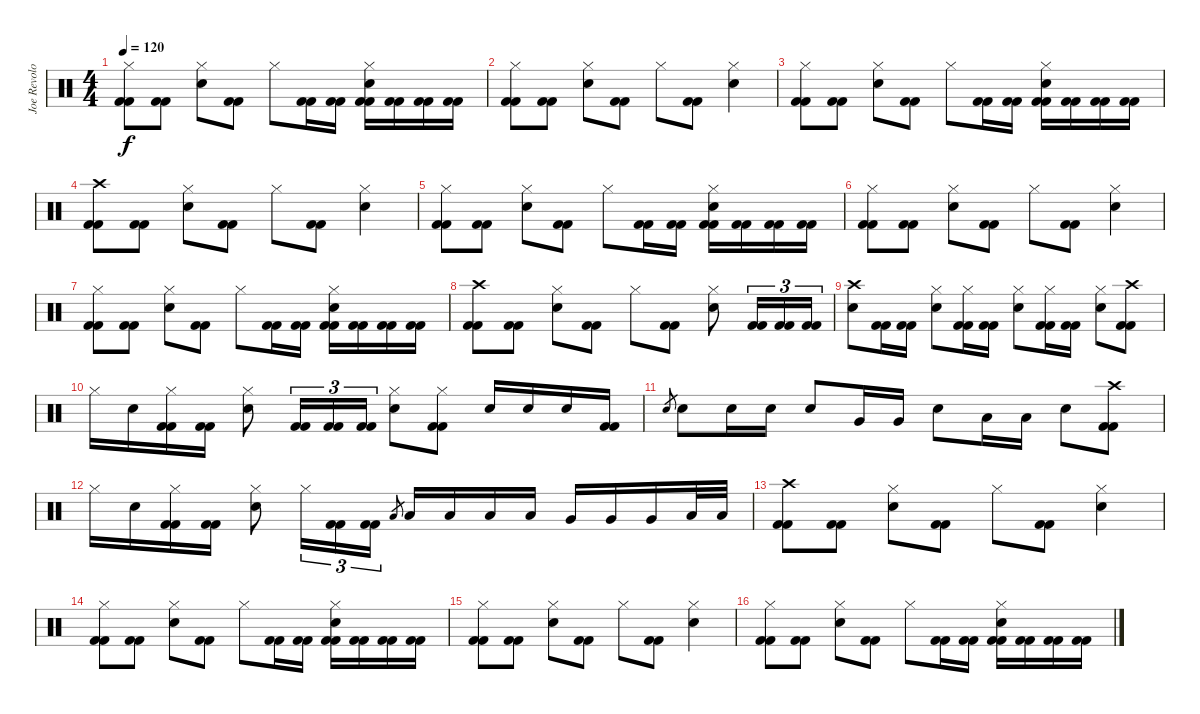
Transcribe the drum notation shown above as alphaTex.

\track ("Joe Revolo" "Joe Revolo") {instrument percussion}
\staff {score}
\articulation defaults
\ts (4 4)
\tempo 120
\clef neutral
\ks c
("Hi-Hat (closed)" "Kick (hit) 2" "Kick (hit) 2").8{dy f} ("Kick (hit) 2" "Kick (hit) 2").8 ("Hi-Hat (closed)" "Electric Snare (hit)").8 ("Kick (hit) 2" "Kick (hit) 2").8 "Hi-Hat (closed)".8 ("Kick (hit) 2" "Kick (hit) 2").16 ("Kick (hit) 2" "Kick (hit) 2").16 ("Hi-Hat (closed)" "Electric Snare (hit)" "Kick (hit) 2" "Kick (hit) 2").16 ("Kick (hit) 2" "Kick (hit) 2").16 ("Kick (hit) 2" "Kick (hit) 2").16 ("Kick (hit) 2" "Kick (hit) 2").16 |
("Hi-Hat (closed)" "Kick (hit) 2" "Kick (hit) 2").8 ("Kick (hit) 2" "Kick (hit) 2").8 ("Hi-Hat (closed)" "Electric Snare (hit)").8 ("Kick (hit) 2" "Kick (hit) 2").8 "Hi-Hat (closed)".8 ("Kick (hit) 2" "Kick (hit) 2").8 ("Hi-Hat (closed)" "Electric Snare (hit)").4 |
("Hi-Hat (closed)" "Kick (hit) 2" "Kick (hit) 2").8 ("Kick (hit) 2" "Kick (hit) 2").8 ("Hi-Hat (closed)" "Electric Snare (hit)").8 ("Kick (hit) 2" "Kick (hit) 2").8 "Hi-Hat (closed)".8 ("Kick (hit) 2" "Kick (hit) 2").16 ("Kick (hit) 2" "Kick (hit) 2").16 ("Hi-Hat (closed)" "Electric Snare (hit)" "Kick (hit) 2" "Kick (hit) 2").16 ("Kick (hit) 2" "Kick (hit) 2").16 ("Kick (hit) 2" "Kick (hit) 2").16 ("Kick (hit) 2" "Kick (hit) 2").16 |
("Crash high (hit)" "Kick (hit) 2" "Kick (hit) 2").8 ("Kick (hit) 2" "Kick (hit) 2").8 ("Hi-Hat (closed)" "Electric Snare (hit)").8 ("Kick (hit) 2" "Kick (hit) 2").8 "Hi-Hat (closed)".8 ("Kick (hit) 2" "Kick (hit) 2").8 ("Hi-Hat (closed)" "Electric Snare (hit)").4 |
("Hi-Hat (closed)" "Kick (hit) 2" "Kick (hit) 2").8 ("Kick (hit) 2" "Kick (hit) 2").8 ("Hi-Hat (closed)" "Electric Snare (hit)").8 ("Kick (hit) 2" "Kick (hit) 2").8 "Hi-Hat (closed)".8 ("Kick (hit) 2" "Kick (hit) 2").16 ("Kick (hit) 2" "Kick (hit) 2").16 ("Hi-Hat (closed)" "Electric Snare (hit)" "Kick (hit) 2" "Kick (hit) 2").16 ("Kick (hit) 2" "Kick (hit) 2").16 ("Kick (hit) 2" "Kick (hit) 2").16 ("Kick (hit) 2" "Kick (hit) 2").16 |
("Hi-Hat (closed)" "Kick (hit) 2" "Kick (hit) 2").8 ("Kick (hit) 2" "Kick (hit) 2").8 ("Hi-Hat (closed)" "Electric Snare (hit)").8 ("Kick (hit) 2" "Kick (hit) 2").8 "Hi-Hat (closed)".8 ("Kick (hit) 2" "Kick (hit) 2").8 ("Hi-Hat (closed)" "Electric Snare (hit)").4 |
("Hi-Hat (closed)" "Kick (hit) 2" "Kick (hit) 2").8 ("Kick (hit) 2" "Kick (hit) 2").8 ("Hi-Hat (closed)" "Electric Snare (hit)").8 ("Kick (hit) 2" "Kick (hit) 2").8 "Hi-Hat (closed)".8 ("Kick (hit) 2" "Kick (hit) 2").16 ("Kick (hit) 2" "Kick (hit) 2").16 ("Hi-Hat (closed)" "Electric Snare (hit)" "Kick (hit) 2" "Kick (hit) 2").16 ("Kick (hit) 2" "Kick (hit) 2").16 ("Kick (hit) 2" "Kick (hit) 2").16 ("Kick (hit) 2" "Kick (hit) 2").16 |
("Crash high (hit)" "Kick (hit) 2" "Kick (hit) 2").8 ("Kick (hit) 2" "Kick (hit) 2").8 ("Hi-Hat (closed)" "Electric Snare (hit)").8 ("Kick (hit) 2" "Kick (hit) 2").8 "Hi-Hat (closed)".8 ("Kick (hit) 2" "Kick (hit) 2").8 ("Hi-Hat (closed)" "Electric Snare (hit)").8 ("Kick (hit) 2" "Kick (hit) 2").16{tu (3 2)} ("Kick (hit) 2" "Kick (hit) 2").16{tu (3 2)} ("Kick (hit) 2" "Kick (hit) 2").16{tu (3 2)} |
("Crash high (hit)" "Electric Snare (hit)").8 ("Kick (hit) 2" "Kick (hit) 2").16 ("Kick (hit) 2" "Kick (hit) 2").16 ("Hi-Hat (closed)" "Electric Snare (hit)").8 ("Hi-Hat (closed)" "Kick (hit) 2" "Kick (hit) 2").16 ("Kick (hit) 2" "Kick (hit) 2").16 ("Hi-Hat (closed)" "Electric Snare (hit)").8 ("Hi-Hat (closed)" "Kick (hit) 2" "Kick (hit) 2").16 ("Kick (hit) 2" "Kick (hit) 2").16 ("Hi-Hat (closed)" "Electric Snare (hit)").8 ("Crash high (hit)" "Kick (hit) 2" "Kick (hit) 2").8 |
"Hi-Hat (closed)".16 "Electric Snare (hit)".16 ("Hi-Hat (closed)" "Kick (hit) 2" "Kick (hit) 2").16 ("Kick (hit) 2" "Kick (hit) 2").16 ("Hi-Hat (closed)" "Electric Snare (hit)").8 ("Kick (hit) 2" "Kick (hit) 2").16{tu (3 2)} ("Kick (hit) 2" "Kick (hit) 2").16{tu (3 2)} ("Kick (hit) 2" "Kick (hit) 2").16{tu (3 2)} ("Hi-Hat (closed)" "Electric Snare (hit)").8 ("Hi-Hat (closed)" "Kick (hit) 2" "Kick (hit) 2").8 "Electric Snare (hit)".16 "Electric Snare (hit)".16 "Electric Snare (hit)".16 ("Kick (hit) 2" "Kick (hit) 2").16 |
"Electric Snare (hit)".8{gr} "Electric Snare (hit)".8 "Electric Snare (hit)".16 "Electric Snare (hit)".16 "Electric Snare (hit)".8 "Very Low Tom (hit)".16 "Very Low Tom (hit)".16 "Electric Snare (hit)".8 "Low Floor Tom (hit)".16 "Low Floor Tom (hit)".16 "Electric Snare (hit)".8 ("Crash high (hit)" "Kick (hit) 2" "Kick (hit) 2").8 |
"Hi-Hat (closed)".16 "Electric Snare (hit)".16 ("Hi-Hat (closed)" "Kick (hit) 2" "Kick (hit) 2").16 ("Kick (hit) 2" "Kick (hit) 2").16 ("Hi-Hat (closed)" "Electric Snare (hit)").8 "Hi-Hat (closed)".16{tu (3 2)} ("Kick (hit) 2" "Kick (hit) 2").16{tu (3 2)} ("Kick (hit) 2" "Kick (hit) 2").16{tu (3 2)} "Low Tom (hit)".8{gr} "Low Tom (hit)".16 "Low Tom (hit)".16 "Low Tom (hit)".16 "Low Tom (hit)".16 "Very Low Tom (hit)".16 "Very Low Tom (hit)".16 "Very Low Tom (hit)".16 "Low Floor Tom (hit)".32 "Low Floor Tom (hit)".32 |
("Crash high (hit)" "Kick (hit) 2" "Kick (hit) 2").8 ("Kick (hit) 2" "Kick (hit) 2").8 ("Hi-Hat (closed)" "Electric Snare (hit)").8 ("Kick (hit) 2" "Kick (hit) 2").8 "Hi-Hat (closed)".8 ("Kick (hit) 2" "Kick (hit) 2").8 ("Hi-Hat (closed)" "Electric Snare (hit)").4 |
("Hi-Hat (closed)" "Kick (hit) 2" "Kick (hit) 2").8 ("Kick (hit) 2" "Kick (hit) 2").8 ("Hi-Hat (closed)" "Electric Snare (hit)").8 ("Kick (hit) 2" "Kick (hit) 2").8 "Hi-Hat (closed)".8 ("Kick (hit) 2" "Kick (hit) 2").16 ("Kick (hit) 2" "Kick (hit) 2").16 ("Hi-Hat (closed)" "Electric Snare (hit)" "Kick (hit) 2" "Kick (hit) 2").16 ("Kick (hit) 2" "Kick (hit) 2").16 ("Kick (hit) 2" "Kick (hit) 2").16 ("Kick (hit) 2" "Kick (hit) 2").16 |
("Hi-Hat (closed)" "Kick (hit) 2" "Kick (hit) 2").8 ("Kick (hit) 2" "Kick (hit) 2").8 ("Hi-Hat (closed)" "Electric Snare (hit)").8 ("Kick (hit) 2" "Kick (hit) 2").8 "Hi-Hat (closed)".8 ("Kick (hit) 2" "Kick (hit) 2").8 ("Hi-Hat (closed)" "Electric Snare (hit)").4 |
("Hi-Hat (closed)" "Kick (hit) 2" "Kick (hit) 2").8 ("Kick (hit) 2" "Kick (hit) 2").8 ("Hi-Hat (closed)" "Electric Snare (hit)").8 ("Kick (hit) 2" "Kick (hit) 2").8 "Hi-Hat (closed)".8 ("Kick (hit) 2" "Kick (hit) 2").16 ("Kick (hit) 2" "Kick (hit) 2").16 ("Hi-Hat (closed)" "Electric Snare (hit)" "Kick (hit) 2" "Kick (hit) 2").16 ("Kick (hit) 2" "Kick (hit) 2").16 ("Kick (hit) 2" "Kick (hit) 2").16 ("Kick (hit) 2" "Kick (hit) 2").16
